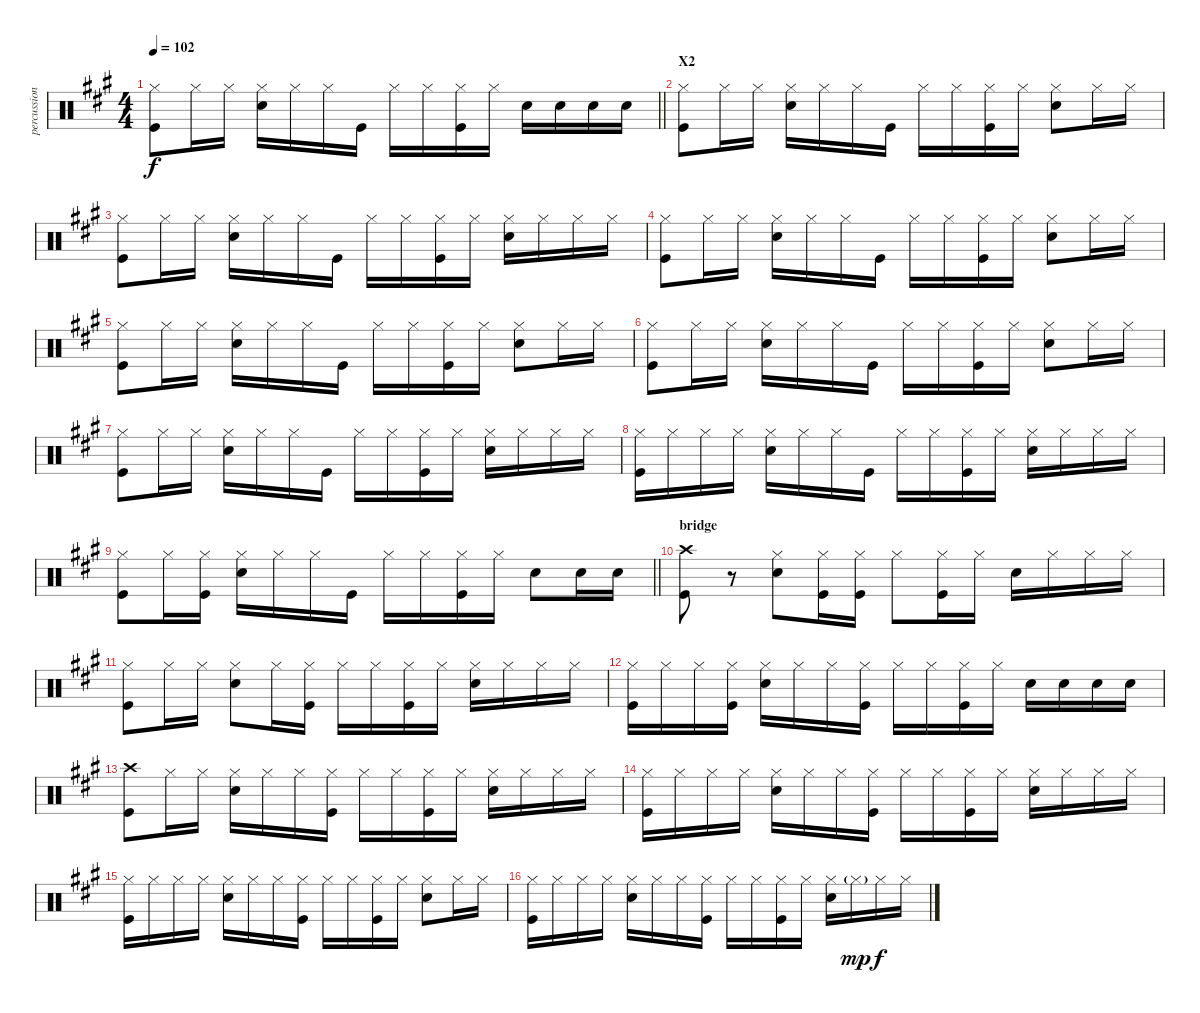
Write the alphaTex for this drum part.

\track ("percussion" "percussion") {instrument percussion}
\staff {score}
\articulation defaults
\ts (4 4)
\tempo 102
\clef neutral
\barLineRight lightlight
\ks a
("Hi-Hat (closed)" "Kick (hit)").8{dy f} "Hi-Hat (closed)".16 "Hi-Hat (closed)".16 ("Electric Snare (hit)" "Hi-Hat (closed)").16 "Hi-Hat (closed)".16 "Hi-Hat (closed)".16 "Kick (hit)".16 "Hi-Hat (closed)".16 "Hi-Hat (closed)".16 ("Hi-Hat (closed)" "Kick (hit)").16 "Hi-Hat (closed)".16 "Electric Snare (hit)".16 "Electric Snare (hit)".16 "Electric Snare (hit)".16 "Electric Snare (hit)".16 |
\section ("" "X2")
("Hi-Hat (closed)" "Kick (hit)").8 "Hi-Hat (closed)".16 "Hi-Hat (closed)".16 ("Electric Snare (hit)" "Hi-Hat (closed)").16 "Hi-Hat (closed)".16 "Hi-Hat (closed)".16 "Kick (hit)".16 "Hi-Hat (closed)".16 "Hi-Hat (closed)".16 ("Hi-Hat (closed)" "Kick (hit)").16 "Hi-Hat (closed)".16 ("Electric Snare (hit)" "Hi-Hat (closed)").8 "Hi-Hat (closed)".16 "Hi-Hat (closed)".16 |
("Hi-Hat (closed)" "Kick (hit)").8 "Hi-Hat (closed)".16 "Hi-Hat (closed)".16 ("Electric Snare (hit)" "Hi-Hat (closed)").16 "Hi-Hat (closed)".16 "Hi-Hat (closed)".16 "Kick (hit)".16 "Hi-Hat (closed)".16 "Hi-Hat (closed)".16 ("Hi-Hat (closed)" "Kick (hit)").16 "Hi-Hat (closed)".16 ("Electric Snare (hit)" "Hi-Hat (closed)").16 "Hi-Hat (closed)".16 "Hi-Hat (closed)".16 "Hi-Hat (closed)".16 |
("Hi-Hat (closed)" "Kick (hit)").8 "Hi-Hat (closed)".16 "Hi-Hat (closed)".16 ("Electric Snare (hit)" "Hi-Hat (closed)").16 "Hi-Hat (closed)".16 "Hi-Hat (closed)".16 "Kick (hit)".16 "Hi-Hat (closed)".16 "Hi-Hat (closed)".16 ("Hi-Hat (closed)" "Kick (hit)").16 "Hi-Hat (closed)".16 ("Electric Snare (hit)" "Hi-Hat (closed)").8 "Hi-Hat (closed)".16 "Hi-Hat (closed)".16 |
("Hi-Hat (closed)" "Kick (hit)").8 "Hi-Hat (closed)".16 "Hi-Hat (closed)".16 ("Electric Snare (hit)" "Hi-Hat (closed)").16 "Hi-Hat (closed)".16 "Hi-Hat (closed)".16 "Kick (hit)".16 "Hi-Hat (closed)".16 "Hi-Hat (closed)".16 ("Hi-Hat (closed)" "Kick (hit)").16 "Hi-Hat (closed)".16 ("Electric Snare (hit)" "Hi-Hat (closed)").8 "Hi-Hat (closed)".16 "Hi-Hat (closed)".16 |
("Hi-Hat (closed)" "Kick (hit)").8 "Hi-Hat (closed)".16 "Hi-Hat (closed)".16 ("Electric Snare (hit)" "Hi-Hat (closed)").16 "Hi-Hat (closed)".16 "Hi-Hat (closed)".16 "Kick (hit)".16 "Hi-Hat (closed)".16 "Hi-Hat (closed)".16 ("Hi-Hat (closed)" "Kick (hit)").16 "Hi-Hat (closed)".16 ("Electric Snare (hit)" "Hi-Hat (closed)").8 "Hi-Hat (closed)".16 "Hi-Hat (closed)".16 |
("Hi-Hat (closed)" "Kick (hit)").8 "Hi-Hat (closed)".16 "Hi-Hat (closed)".16 ("Electric Snare (hit)" "Hi-Hat (closed)").16 "Hi-Hat (closed)".16 "Hi-Hat (closed)".16 "Kick (hit)".16 "Hi-Hat (closed)".16 "Hi-Hat (closed)".16 ("Hi-Hat (closed)" "Kick (hit)").16 "Hi-Hat (closed)".16 ("Electric Snare (hit)" "Hi-Hat (closed)").16 "Hi-Hat (closed)".16 "Hi-Hat (closed)".16 "Hi-Hat (closed)".16 |
("Hi-Hat (closed)" "Kick (hit)").16 "Hi-Hat (closed)".16 "Hi-Hat (closed)".16 "Hi-Hat (closed)".16 ("Electric Snare (hit)" "Hi-Hat (closed)").16 "Hi-Hat (closed)".16 "Hi-Hat (closed)".16 "Kick (hit)".16 "Hi-Hat (closed)".16 "Hi-Hat (closed)".16 ("Hi-Hat (closed)" "Kick (hit)").16 "Hi-Hat (closed)".16 ("Electric Snare (hit)" "Hi-Hat (closed)").16 "Hi-Hat (closed)".16 "Hi-Hat (closed)".16 "Hi-Hat (closed)".16 |
\barLineRight lightlight
("Hi-Hat (closed)" "Kick (hit)").8 "Hi-Hat (closed)".16 ("Hi-Hat (closed)" "Kick (hit)").16 ("Electric Snare (hit)" "Hi-Hat (closed)").16 "Hi-Hat (closed)".16 "Hi-Hat (closed)".16 "Kick (hit)".16 "Hi-Hat (closed)".16 "Hi-Hat (closed)".16 ("Hi-Hat (closed)" "Kick (hit)").16 "Hi-Hat (closed)".16 "Electric Snare (hit)".8 "Electric Snare (hit)".16 "Electric Snare (hit)".16 |
\section ("" "bridge")
("Crash high (hit)" "Kick (hit)").8 r.8 ("Electric Snare (hit)" "Hi-Hat (closed)").8 ("Hi-Hat (closed)" "Kick (hit)").16 ("Hi-Hat (closed)" "Kick (hit)").16 "Hi-Hat (closed)".8 ("Hi-Hat (closed)" "Kick (hit)").16 "Hi-Hat (closed)".16 "Electric Snare (hit)".16 "Hi-Hat (closed)".16 "Hi-Hat (closed)".16 "Hi-Hat (closed)".16 |
("Hi-Hat (closed)" "Kick (hit)").8 "Hi-Hat (closed)".16 "Hi-Hat (closed)".16 ("Electric Snare (hit)" "Hi-Hat (closed)").8 "Hi-Hat (closed)".16 ("Hi-Hat (closed)" "Kick (hit)").16 "Hi-Hat (closed)".16 "Hi-Hat (closed)".16 ("Hi-Hat (closed)" "Kick (hit)").16 "Hi-Hat (closed)".16 ("Electric Snare (hit)" "Hi-Hat (closed)").16 "Hi-Hat (closed)".16 "Hi-Hat (closed)".16 "Hi-Hat (closed)".16 |
("Hi-Hat (closed)" "Kick (hit)").16 "Hi-Hat (closed)".16 "Hi-Hat (closed)".16 ("Hi-Hat (closed)" "Kick (hit)").16 ("Electric Snare (hit)" "Hi-Hat (closed)").16 "Hi-Hat (closed)".16 "Hi-Hat (closed)".16 ("Hi-Hat (closed)" "Kick (hit)").16 "Hi-Hat (closed)".16 "Hi-Hat (closed)".16 ("Hi-Hat (closed)" "Kick (hit)").16 "Hi-Hat (closed)".16 "Electric Snare (hit)".16 "Electric Snare (hit)".16 "Electric Snare (hit)".16 "Electric Snare (hit)".16 |
("Crash high (hit)" "Kick (hit)").8 "Hi-Hat (closed)".16 "Hi-Hat (closed)".16 ("Electric Snare (hit)" "Hi-Hat (closed)").16 "Hi-Hat (closed)".16 "Hi-Hat (closed)".16 ("Hi-Hat (closed)" "Kick (hit)").16 "Hi-Hat (closed)".16 "Hi-Hat (closed)".16 ("Hi-Hat (closed)" "Kick (hit)").16 "Hi-Hat (closed)".16 ("Electric Snare (hit)" "Hi-Hat (closed)").16 "Hi-Hat (closed)".16 "Hi-Hat (closed)".16 "Hi-Hat (closed)".16 |
("Hi-Hat (closed)" "Kick (hit)").16 "Hi-Hat (closed)".16 "Hi-Hat (closed)".16 "Hi-Hat (closed)".16 ("Electric Snare (hit)" "Hi-Hat (closed)").16 "Hi-Hat (closed)".16 "Hi-Hat (closed)".16 ("Hi-Hat (closed)" "Kick (hit)").16 "Hi-Hat (closed)".16 "Hi-Hat (closed)".16 ("Hi-Hat (closed)" "Kick (hit)").16 "Hi-Hat (closed)".16 ("Electric Snare (hit)" "Hi-Hat (closed)").16 "Hi-Hat (closed)".16 "Hi-Hat (closed)".16 "Hi-Hat (closed)".16 |
("Hi-Hat (closed)" "Kick (hit)").16 "Hi-Hat (closed)".16 "Hi-Hat (closed)".16 "Hi-Hat (closed)".16 ("Electric Snare (hit)" "Hi-Hat (closed)").16 "Hi-Hat (closed)".16 "Hi-Hat (closed)".16 ("Hi-Hat (closed)" "Kick (hit)").16 "Hi-Hat (closed)".16 "Hi-Hat (closed)".16 ("Hi-Hat (closed)" "Kick (hit)").16 "Hi-Hat (closed)".16 ("Electric Snare (hit)" "Hi-Hat (closed)").8 "Hi-Hat (closed)".16 "Hi-Hat (closed)".16 |
("Hi-Hat (closed)" "Kick (hit)").16 "Hi-Hat (closed)".16 "Hi-Hat (closed)".16 "Hi-Hat (closed)".16 ("Electric Snare (hit)" "Hi-Hat (closed)").16 "Hi-Hat (closed)".16 "Hi-Hat (closed)".16 ("Hi-Hat (closed)" "Kick (hit)").16 "Hi-Hat (closed)".16 "Hi-Hat (closed)".16 ("Hi-Hat (closed)" "Kick (hit)").16 "Hi-Hat (closed)".16 ("Electric Snare (hit)" "Hi-Hat (closed)").16 "Hi-Hat (closed)"{g}.16{dy mp} "Hi-Hat (closed)".16{dy f} "Hi-Hat (closed)".16
